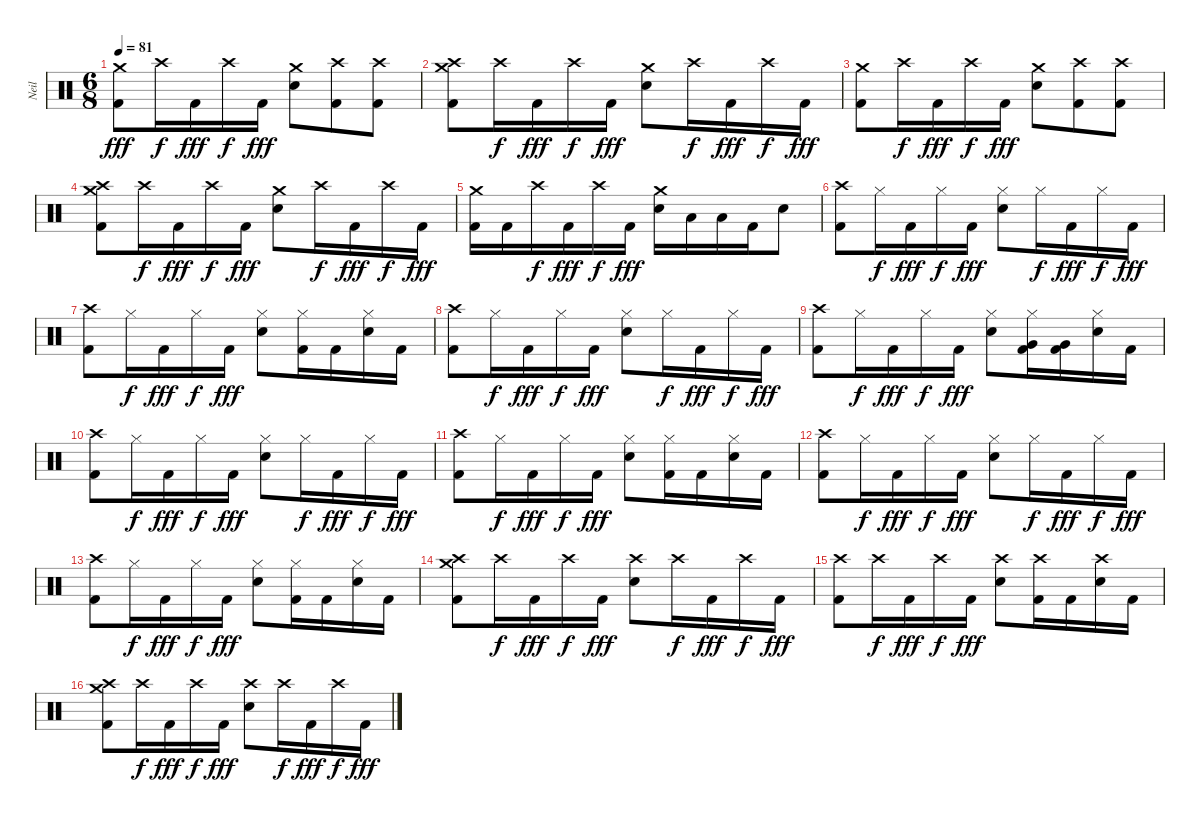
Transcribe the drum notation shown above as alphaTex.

\track ("Neil" "Neil") {instrument percussion}
\staff {score}
\articulation defaults
\ts (6 8)
\tempo 81
\clef neutral
\ks c
("Crash medium (hit)" "Kick (hit) 2").8{dy fff} "Crash high (hit)".16{dy f} "Kick (hit) 2".16{dy fff} "Crash high (hit)".16{dy f} "Kick (hit) 2".16{dy fff} ("Crash medium (hit)" "Electric Snare (hit)").8 ("Crash high (hit)" "Kick (hit) 2").8 ("Crash high (hit)" "Kick (hit) 2").8 |
("Crash high (hit)" "Crash medium (hit)" "Kick (hit) 2").8 "Crash high (hit)".16{dy f} "Kick (hit) 2".16{dy fff} "Crash high (hit)".16{dy f} "Kick (hit) 2".16{dy fff} ("Crash medium (hit)" "Electric Snare (hit)").8 "Crash high (hit)".16{dy f} "Kick (hit) 2".16{dy fff} "Crash high (hit)".16{dy f} "Kick (hit) 2".16{dy fff} |
("Crash medium (hit)" "Kick (hit) 2").8 "Crash high (hit)".16{dy f} "Kick (hit) 2".16{dy fff} "Crash high (hit)".16{dy f} "Kick (hit) 2".16{dy fff} ("Crash medium (hit)" "Electric Snare (hit)").8 ("Crash high (hit)" "Kick (hit) 2").8 ("Crash high (hit)" "Kick (hit) 2").8 |
("Crash high (hit)" "Crash medium (hit)" "Kick (hit) 2").8 "Crash high (hit)".16{dy f} "Kick (hit) 2".16{dy fff} "Crash high (hit)".16{dy f} "Kick (hit) 2".16{dy fff} ("Crash medium (hit)" "Electric Snare (hit)").8 "Crash high (hit)".16{dy f} "Kick (hit) 2".16{dy fff} "Crash high (hit)".16{dy f} "Kick (hit) 2".16{dy fff} |
("Crash medium (hit)" "Kick (hit) 2").16 "Kick (hit) 2".16 "Crash high (hit)".16{dy f} "Kick (hit) 2".16{dy fff} "Crash high (hit)".16{dy f} "Kick (hit) 2".16{dy fff} ("Crash medium (hit)" "Electric Snare (hit)").16 "Low Tom (hit)".16 "Low Tom (hit)".16 "Kick (hit) 2".16 "Electric Snare (hit)".8 |
("Crash high (hit)" "Kick (hit) 2").8 "Hi-Hat (closed)".16{dy f} "Kick (hit) 2".16{dy fff} "Hi-Hat (closed)".16{dy f} "Kick (hit) 2".16{dy fff} ("Hi-Hat (closed)" "Electric Snare (hit)").8 "Hi-Hat (closed)".16{dy f} "Kick (hit) 2".16{dy fff} "Hi-Hat (closed)".16{dy f} "Kick (hit) 2".16{dy fff} |
("Crash high (hit)" "Kick (hit) 2").8 "Hi-Hat (closed)".16{dy f} "Kick (hit) 2".16{dy fff} "Hi-Hat (closed)".16{dy f} "Kick (hit) 2".16{dy fff} ("Hi-Hat (closed)" "Electric Snare (hit)").8 ("Hi-Hat (closed)" "Kick (hit) 2").16 "Kick (hit) 2".16 ("Hi-Hat (closed)" "Electric Snare (hit)").16 "Kick (hit) 2".16 |
("Crash high (hit)" "Kick (hit) 2").8 "Hi-Hat (closed)".16{dy f} "Kick (hit) 2".16{dy fff} "Hi-Hat (closed)".16{dy f} "Kick (hit) 2".16{dy fff} ("Hi-Hat (closed)" "Electric Snare (hit)").8 "Hi-Hat (closed)".16{dy f} "Kick (hit) 2".16{dy fff} "Hi-Hat (closed)".16{dy f} "Kick (hit) 2".16{dy fff} |
("Crash high (hit)" "Kick (hit) 2").8 "Hi-Hat (closed)".16{dy f} "Kick (hit) 2".16{dy fff} "Hi-Hat (closed)".16{dy f} "Kick (hit) 2".16{dy fff} ("Hi-Hat (closed)" "Electric Snare (hit)").8 ("Hi-Hat (closed)" "Very Low Tom (hit)" "Kick (hit) 2").16 ("Very Low Tom (hit)" "Kick (hit) 2").16 ("Hi-Hat (closed)" "Electric Snare (hit)").16 "Kick (hit) 2".16 |
("Crash high (hit)" "Kick (hit) 2").8 "Hi-Hat (closed)".16{dy f} "Kick (hit) 2".16{dy fff} "Hi-Hat (closed)".16{dy f} "Kick (hit) 2".16{dy fff} ("Hi-Hat (closed)" "Electric Snare (hit)").8 "Hi-Hat (closed)".16{dy f} "Kick (hit) 2".16{dy fff} "Hi-Hat (closed)".16{dy f} "Kick (hit) 2".16{dy fff} |
("Crash high (hit)" "Kick (hit) 2").8 "Hi-Hat (closed)".16{dy f} "Kick (hit) 2".16{dy fff} "Hi-Hat (closed)".16{dy f} "Kick (hit) 2".16{dy fff} ("Hi-Hat (closed)" "Electric Snare (hit)").8 ("Hi-Hat (closed)" "Kick (hit) 2").16 "Kick (hit) 2".16 ("Hi-Hat (closed)" "Electric Snare (hit)").16 "Kick (hit) 2".16 |
("Crash high (hit)" "Kick (hit) 2").8 "Hi-Hat (closed)".16{dy f} "Kick (hit) 2".16{dy fff} "Hi-Hat (closed)".16{dy f} "Kick (hit) 2".16{dy fff} ("Hi-Hat (closed)" "Electric Snare (hit)").8 "Hi-Hat (closed)".16{dy f} "Kick (hit) 2".16{dy fff} "Hi-Hat (closed)".16{dy f} "Kick (hit) 2".16{dy fff} |
("Crash high (hit)" "Kick (hit) 2").8 "Hi-Hat (closed)".16{dy f} "Kick (hit) 2".16{dy fff} "Hi-Hat (closed)".16{dy f} "Kick (hit) 2".16{dy fff} ("Hi-Hat (closed)" "Electric Snare (hit)").8 ("Hi-Hat (closed)" "Kick (hit) 2").16 "Kick (hit) 2".16 ("Hi-Hat (closed)" "Electric Snare (hit)").16 "Kick (hit) 2".16 |
("Crash high (hit)" "Crash medium (hit)" "Kick (hit) 2").8 "Crash high (hit)".16{dy f} "Kick (hit) 2".16{dy fff} "Crash high (hit)".16{dy f} "Kick (hit) 2".16{dy fff} ("Crash high (hit)" "Electric Snare (hit)").8 "Crash high (hit)".16{dy f} "Kick (hit) 2".16{dy fff} "Crash high (hit)".16{dy f} "Kick (hit) 2".16{dy fff} |
("Crash high (hit)" "Kick (hit) 2").8 "Crash high (hit)".16{dy f} "Kick (hit) 2".16{dy fff} "Crash high (hit)".16{dy f} "Kick (hit) 2".16{dy fff} ("Crash high (hit)" "Electric Snare (hit)").8 ("Crash high (hit)" "Kick (hit) 2").16 "Kick (hit) 2".16 ("Crash high (hit)" "Electric Snare (hit)").16 "Kick (hit) 2".16 |
("Crash high (hit)" "Crash medium (hit)" "Kick (hit) 2").8 "Crash high (hit)".16{dy f} "Kick (hit) 2".16{dy fff} "Crash high (hit)".16{dy f} "Kick (hit) 2".16{dy fff} ("Crash high (hit)" "Electric Snare (hit)").8 "Crash high (hit)".16{dy f} "Kick (hit) 2".16{dy fff} "Crash high (hit)".16{dy f} "Kick (hit) 2".16{dy fff}
